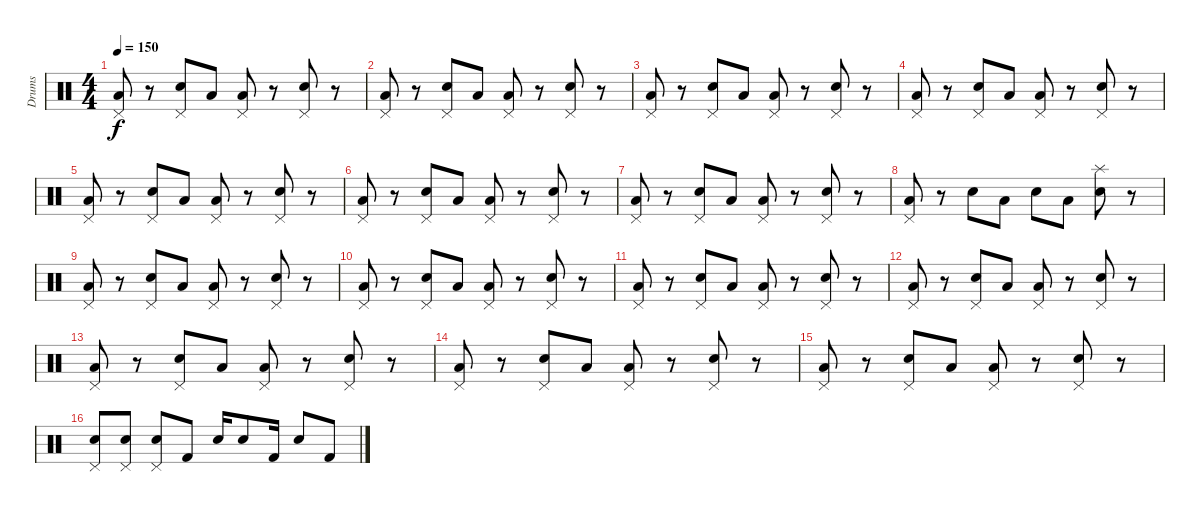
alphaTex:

\track ("Drums" "Drums") {instrument percussion}
\staff {score}
\articulation defaults
\ts (4 4)
\tempo 150
\clef neutral
\ks c
("Pedal Hi-Hat (hit)" "Low Tom (hit)").8{dy f} r.8 ("Pedal Hi-Hat (hit)" "Electric Snare (hit)").8 "Low Tom (hit)".8 ("Pedal Hi-Hat (hit)" "Low Tom (hit)").8 r.8 ("Pedal Hi-Hat (hit)" "Electric Snare (hit)").8 r.8 |
("Pedal Hi-Hat (hit)" "Low Tom (hit)").8 r.8 ("Pedal Hi-Hat (hit)" "Electric Snare (hit)").8 "Low Tom (hit)".8 ("Pedal Hi-Hat (hit)" "Low Tom (hit)").8 r.8 ("Pedal Hi-Hat (hit)" "Electric Snare (hit)").8 r.8 |
("Pedal Hi-Hat (hit)" "Low Tom (hit)").8 r.8 ("Pedal Hi-Hat (hit)" "Electric Snare (hit)").8 "Low Tom (hit)".8 ("Pedal Hi-Hat (hit)" "Low Tom (hit)").8 r.8 ("Pedal Hi-Hat (hit)" "Electric Snare (hit)").8 r.8 |
("Pedal Hi-Hat (hit)" "Low Tom (hit)").8 r.8 ("Pedal Hi-Hat (hit)" "Electric Snare (hit)").8 "Low Tom (hit)".8 ("Pedal Hi-Hat (hit)" "Low Tom (hit)").8 r.8 ("Pedal Hi-Hat (hit)" "Electric Snare (hit)").8 r.8 |
("Pedal Hi-Hat (hit)" "Low Tom (hit)").8 r.8 ("Pedal Hi-Hat (hit)" "Electric Snare (hit)").8 "Low Tom (hit)".8 ("Pedal Hi-Hat (hit)" "Low Tom (hit)").8 r.8 ("Pedal Hi-Hat (hit)" "Electric Snare (hit)").8 r.8 |
("Pedal Hi-Hat (hit)" "Low Tom (hit)").8 r.8 ("Pedal Hi-Hat (hit)" "Electric Snare (hit)").8 "Low Tom (hit)".8 ("Pedal Hi-Hat (hit)" "Low Tom (hit)").8 r.8 ("Pedal Hi-Hat (hit)" "Electric Snare (hit)").8 r.8 |
("Pedal Hi-Hat (hit)" "Low Tom (hit)").8 r.8 ("Pedal Hi-Hat (hit)" "Electric Snare (hit)").8 "Low Tom (hit)".8 ("Pedal Hi-Hat (hit)" "Low Tom (hit)").8 r.8 ("Pedal Hi-Hat (hit)" "Electric Snare (hit)").8 r.8 |
("Pedal Hi-Hat (hit)" "Low Tom (hit)").8 r.8 "Electric Snare (hit)".8 "Low Tom (hit)".8 "Electric Snare (hit)".8 "Low Tom (hit)".8 ("Splash (hit)" "Electric Snare (hit)").8 r.8 |
("Pedal Hi-Hat (hit)" "Low Tom (hit)").8 r.8 ("Pedal Hi-Hat (hit)" "Electric Snare (hit)").8 "Low Tom (hit)".8 ("Pedal Hi-Hat (hit)" "Low Tom (hit)").8 r.8 ("Pedal Hi-Hat (hit)" "Electric Snare (hit)").8 r.8 |
("Pedal Hi-Hat (hit)" "Low Tom (hit)").8 r.8 ("Pedal Hi-Hat (hit)" "Electric Snare (hit)").8 "Low Tom (hit)".8 ("Pedal Hi-Hat (hit)" "Low Tom (hit)").8 r.8 ("Pedal Hi-Hat (hit)" "Electric Snare (hit)").8 r.8 |
("Pedal Hi-Hat (hit)" "Low Tom (hit)").8 r.8 ("Pedal Hi-Hat (hit)" "Electric Snare (hit)").8 "Low Tom (hit)".8 ("Pedal Hi-Hat (hit)" "Low Tom (hit)").8 r.8 ("Pedal Hi-Hat (hit)" "Electric Snare (hit)").8 r.8 |
("Pedal Hi-Hat (hit)" "Low Tom (hit)").8 r.8 ("Pedal Hi-Hat (hit)" "Electric Snare (hit)").8 "Low Tom (hit)".8 ("Pedal Hi-Hat (hit)" "Low Tom (hit)").8 r.8 ("Pedal Hi-Hat (hit)" "Electric Snare (hit)").8 r.8 |
("Pedal Hi-Hat (hit)" "Low Tom (hit)").8 r.8 ("Pedal Hi-Hat (hit)" "Electric Snare (hit)").8 "Low Tom (hit)".8 ("Pedal Hi-Hat (hit)" "Low Tom (hit)").8 r.8 ("Pedal Hi-Hat (hit)" "Electric Snare (hit)").8 r.8 |
("Pedal Hi-Hat (hit)" "Low Tom (hit)").8 r.8 ("Pedal Hi-Hat (hit)" "Electric Snare (hit)").8 "Low Tom (hit)".8 ("Pedal Hi-Hat (hit)" "Low Tom (hit)").8 r.8 ("Pedal Hi-Hat (hit)" "Electric Snare (hit)").8 r.8 |
("Pedal Hi-Hat (hit)" "Low Tom (hit)").8 r.8 ("Pedal Hi-Hat (hit)" "Electric Snare (hit)").8 "Low Tom (hit)".8 ("Pedal Hi-Hat (hit)" "Low Tom (hit)").8 r.8 ("Pedal Hi-Hat (hit)" "Electric Snare (hit)").8 r.8 |
("Pedal Hi-Hat (hit)" "Electric Snare (hit)").8 ("Pedal Hi-Hat (hit)" "Electric Snare (hit)").8 ("Pedal Hi-Hat (hit)" "Electric Snare (hit)").8 "Kick (hit) 2".8 "Electric Snare (hit)".16 "Electric Snare (hit)".8 "Kick (hit) 2".16 "Electric Snare (hit)".8 "Kick (hit) 2".8
